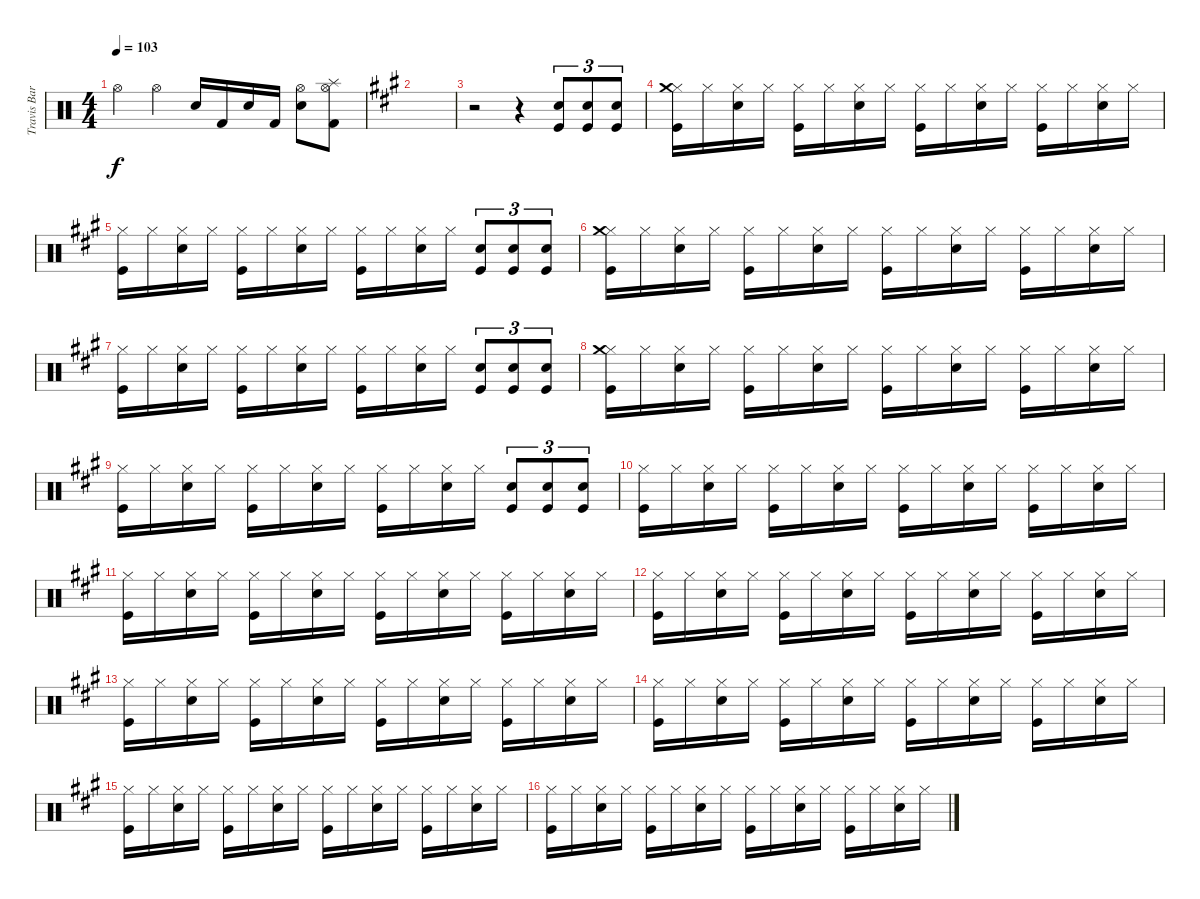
\track ("Travis Barker (Schlagzeug)" "Travis Bar") {instrument percussion}
\staff {score}
\articulation defaults
\ts (4 4)
\tempo 103
\clef neutral
\ks c "Hi-Hat (open)".4{dy f} "Hi-Hat (open)".4 "Electric Snare (hit)".16 "Kick (hit) 2".16 "Electric Snare (hit)".16 "Kick (hit) 2".16
("Hi-Hat (open)" "Electric Snare (hit)").8 ("Hi-Hat (open)" "Splash (hit)" "Kick (hit) 2").8 |
\ks a
|
r.2 r.4 ("Snare (hit) 2" "Kick (hit)").8{tu (3 2)} ("Snare (hit) 2" "Kick (hit)").8{tu (3 2)} ("Snare (hit) 2" "Kick (hit)").8{tu (3 2)} |
("Hi-Hat (closed)" "Crash medium (hit)" "Kick (hit)").16 "Hi-Hat (closed)".16 ("Hi-Hat (closed)" "Snare (hit) 2").16 "Hi-Hat (closed)".16 ("Hi-Hat (closed)" "Kick (hit)").16 "Hi-Hat (closed)".16 ("Hi-Hat (closed)" "Snare (hit) 2").16 "Hi-Hat (closed)".16 ("Hi-Hat (closed)" "Kick (hit)").16 "Hi-Hat (closed)".16 ("Hi-Hat (closed)" "Snare (hit) 2").16 "Hi-Hat (closed)".16 ("Hi-Hat (closed)" "Kick (hit)").16 "Hi-Hat (closed)".16 ("Hi-Hat (closed)" "Snare (hit) 2").16 "Hi-Hat (closed)".16 |
("Hi-Hat (closed)" "Kick (hit)").16 "Hi-Hat (closed)".16 ("Hi-Hat (closed)" "Snare (hit) 2").16 "Hi-Hat (closed)".16 ("Hi-Hat (closed)" "Kick (hit)").16 "Hi-Hat (closed)".16 ("Hi-Hat (closed)" "Snare (hit) 2").16 "Hi-Hat (closed)".16 ("Hi-Hat (closed)" "Kick (hit)").16 "Hi-Hat (closed)".16 ("Hi-Hat (closed)" "Snare (hit) 2").16 "Hi-Hat (closed)".16 ("Snare (hit) 2" "Kick (hit)").8{tu (3 2)} ("Snare (hit) 2" "Kick (hit)").8{tu (3 2)} ("Snare (hit) 2" "Kick (hit)").8{tu (3 2)} |
("Hi-Hat (closed)" "Crash medium (hit)" "Kick (hit)").16 "Hi-Hat (closed)".16 ("Hi-Hat (closed)" "Snare (hit) 2").16 "Hi-Hat (closed)".16 ("Hi-Hat (closed)" "Kick (hit)").16 "Hi-Hat (closed)".16 ("Hi-Hat (closed)" "Snare (hit) 2").16 "Hi-Hat (closed)".16 ("Hi-Hat (closed)" "Kick (hit)").16 "Hi-Hat (closed)".16 ("Hi-Hat (closed)" "Snare (hit) 2").16 "Hi-Hat (closed)".16 ("Hi-Hat (closed)" "Kick (hit)").16 "Hi-Hat (closed)".16 ("Hi-Hat (closed)" "Snare (hit) 2").16 "Hi-Hat (closed)".16 |
("Hi-Hat (closed)" "Kick (hit)").16 "Hi-Hat (closed)".16 ("Hi-Hat (closed)" "Snare (hit) 2").16 "Hi-Hat (closed)".16 ("Hi-Hat (closed)" "Kick (hit)").16 "Hi-Hat (closed)".16 ("Hi-Hat (closed)" "Snare (hit) 2").16 "Hi-Hat (closed)".16 ("Hi-Hat (closed)" "Kick (hit)").16 "Hi-Hat (closed)".16 ("Hi-Hat (closed)" "Snare (hit) 2").16 "Hi-Hat (closed)".16 ("Snare (hit) 2" "Kick (hit)").8{tu (3 2)} ("Snare (hit) 2" "Kick (hit)").8{tu (3 2)} ("Snare (hit) 2" "Kick (hit)").8{tu (3 2)} |
("Hi-Hat (closed)" "Crash medium (hit)" "Kick (hit)").16 "Hi-Hat (closed)".16 ("Hi-Hat (closed)" "Snare (hit) 2").16 "Hi-Hat (closed)".16 ("Hi-Hat (closed)" "Kick (hit)").16 "Hi-Hat (closed)".16 ("Hi-Hat (closed)" "Snare (hit) 2").16 "Hi-Hat (closed)".16 ("Hi-Hat (closed)" "Kick (hit)").16 "Hi-Hat (closed)".16 ("Hi-Hat (closed)" "Snare (hit) 2").16 "Hi-Hat (closed)".16 ("Hi-Hat (closed)" "Kick (hit)").16 "Hi-Hat (closed)".16 ("Hi-Hat (closed)" "Snare (hit) 2").16 "Hi-Hat (closed)".16 |
("Hi-Hat (closed)" "Kick (hit)").16 "Hi-Hat (closed)".16 ("Hi-Hat (closed)" "Snare (hit) 2").16 "Hi-Hat (closed)".16 ("Hi-Hat (closed)" "Kick (hit)").16 "Hi-Hat (closed)".16 ("Hi-Hat (closed)" "Snare (hit) 2").16 "Hi-Hat (closed)".16 ("Hi-Hat (closed)" "Kick (hit)").16 "Hi-Hat (closed)".16 ("Hi-Hat (closed)" "Snare (hit) 2").16 "Hi-Hat (closed)".16 ("Snare (hit) 2" "Kick (hit)").8{tu (3 2)} ("Snare (hit) 2" "Kick (hit)").8{tu (3 2)} ("Snare (hit) 2" "Kick (hit)").8{tu (3 2)} |
("Hi-Hat (closed)" "Kick (hit)").16 "Hi-Hat (closed)".16 ("Hi-Hat (closed)" "Snare (hit) 2").16 "Hi-Hat (closed)".16 ("Hi-Hat (closed)" "Kick (hit)").16 "Hi-Hat (closed)".16 ("Hi-Hat (closed)" "Snare (hit) 2").16 "Hi-Hat (closed)".16 ("Hi-Hat (closed)" "Kick (hit)").16 "Hi-Hat (closed)".16 ("Hi-Hat (closed)" "Snare (hit) 2").16 "Hi-Hat (closed)".16 ("Hi-Hat (closed)" "Kick (hit)").16 "Hi-Hat (closed)".16 ("Hi-Hat (closed)" "Snare (hit) 2").16 "Hi-Hat (closed)".16 |
("Hi-Hat (closed)" "Kick (hit)").16 "Hi-Hat (closed)".16 ("Hi-Hat (closed)" "Snare (hit) 2").16 "Hi-Hat (closed)".16 ("Hi-Hat (closed)" "Kick (hit)").16 "Hi-Hat (closed)".16 ("Hi-Hat (closed)" "Snare (hit) 2").16 "Hi-Hat (closed)".16 ("Hi-Hat (closed)" "Kick (hit)").16 "Hi-Hat (closed)".16 ("Hi-Hat (closed)" "Snare (hit) 2").16 "Hi-Hat (closed)".16 ("Hi-Hat (closed)" "Kick (hit)").16 "Hi-Hat (closed)".16 ("Hi-Hat (closed)" "Snare (hit) 2").16 "Hi-Hat (closed)".16 |
("Hi-Hat (closed)" "Kick (hit)").16 "Hi-Hat (closed)".16 ("Hi-Hat (closed)" "Snare (hit) 2").16 "Hi-Hat (closed)".16 ("Hi-Hat (closed)" "Kick (hit)").16 "Hi-Hat (closed)".16 ("Hi-Hat (closed)" "Snare (hit) 2").16 "Hi-Hat (closed)".16 ("Hi-Hat (closed)" "Kick (hit)").16 "Hi-Hat (closed)".16 ("Hi-Hat (closed)" "Snare (hit) 2").16 "Hi-Hat (closed)".16 ("Hi-Hat (closed)" "Kick (hit)").16 "Hi-Hat (closed)".16 ("Hi-Hat (closed)" "Snare (hit) 2").16 "Hi-Hat (closed)".16 |
("Hi-Hat (closed)" "Kick (hit)").16 "Hi-Hat (closed)".16 ("Hi-Hat (closed)" "Snare (hit) 2").16 "Hi-Hat (closed)".16 ("Hi-Hat (closed)" "Kick (hit)").16 "Hi-Hat (closed)".16 ("Hi-Hat (closed)" "Snare (hit) 2").16 "Hi-Hat (closed)".16 ("Hi-Hat (closed)" "Kick (hit)").16 "Hi-Hat (closed)".16 ("Hi-Hat (closed)" "Snare (hit) 2").16 "Hi-Hat (closed)".16 ("Hi-Hat (closed)" "Kick (hit)").16 "Hi-Hat (closed)".16 ("Hi-Hat (closed)" "Snare (hit) 2").16 "Hi-Hat (closed)".16 |
("Hi-Hat (closed)" "Kick (hit)").16 "Hi-Hat (closed)".16 ("Hi-Hat (closed)" "Snare (hit) 2").16 "Hi-Hat (closed)".16 ("Hi-Hat (closed)" "Kick (hit)").16 "Hi-Hat (closed)".16 ("Hi-Hat (closed)" "Snare (hit) 2").16 "Hi-Hat (closed)".16 ("Hi-Hat (closed)" "Kick (hit)").16 "Hi-Hat (closed)".16 ("Hi-Hat (closed)" "Snare (hit) 2").16 "Hi-Hat (closed)".16 ("Hi-Hat (closed)" "Kick (hit)").16 "Hi-Hat (closed)".16 ("Hi-Hat (closed)" "Snare (hit) 2").16 "Hi-Hat (closed)".16 |
("Hi-Hat (closed)" "Kick (hit)").16 "Hi-Hat (closed)".16 ("Hi-Hat (closed)" "Snare (hit) 2").16 "Hi-Hat (closed)".16 ("Hi-Hat (closed)" "Kick (hit)").16 "Hi-Hat (closed)".16 ("Hi-Hat (closed)" "Snare (hit) 2").16 "Hi-Hat (closed)".16 ("Hi-Hat (closed)" "Kick (hit)").16 "Hi-Hat (closed)".16 ("Hi-Hat (closed)" "Snare (hit) 2").16 "Hi-Hat (closed)".16 ("Hi-Hat (closed)" "Kick (hit)").16 "Hi-Hat (closed)".16 ("Hi-Hat (closed)" "Snare (hit) 2").16 "Hi-Hat (closed)".16 |
("Hi-Hat (closed)" "Kick (hit)").16 "Hi-Hat (closed)".16 ("Hi-Hat (closed)" "Snare (hit) 2").16 "Hi-Hat (closed)".16 ("Hi-Hat (closed)" "Kick (hit)").16 "Hi-Hat (closed)".16 ("Hi-Hat (closed)" "Snare (hit) 2").16 "Hi-Hat (closed)".16 ("Hi-Hat (closed)" "Kick (hit)").16 "Hi-Hat (closed)".16 ("Hi-Hat (closed)" "Snare (hit) 2").16 "Hi-Hat (closed)".16 ("Hi-Hat (closed)" "Kick (hit)").16 "Hi-Hat (closed)".16 ("Hi-Hat (closed)" "Snare (hit) 2").16 "Hi-Hat (closed)".16
